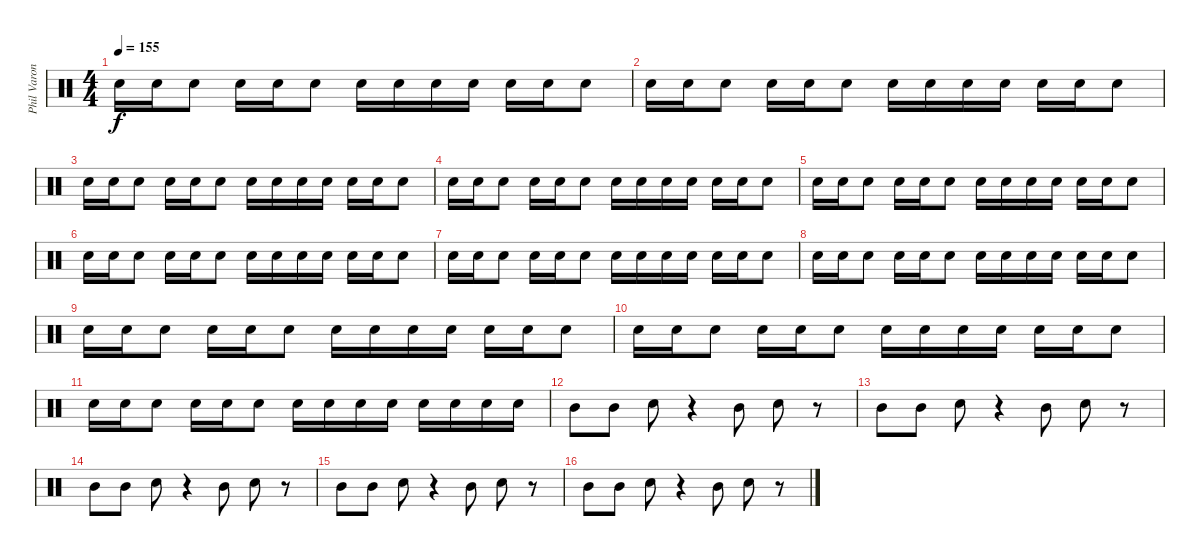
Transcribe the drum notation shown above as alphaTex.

\track ("Phil Varone" "Phil Varon") {instrument percussion}
\staff {score}
\articulation defaults
\ts (4 4)
\tempo 155
\clef neutral
\ks c "Snare (hit) 2".16{dy f} "Snare (hit) 2".16 "Snare (hit) 2".8 "Snare (hit) 2".16 "Snare (hit) 2".16 "Snare (hit) 2".8 "Snare (hit) 2".16 "Snare (hit) 2".16 "Snare (hit) 2".16 "Snare (hit) 2".16 "Snare (hit) 2".16 "Snare (hit) 2".16 "Snare (hit) 2".8
|
"Snare (hit) 2".16 "Snare (hit) 2".16 "Snare (hit) 2".8 "Snare (hit) 2".16 "Snare (hit) 2".16 "Snare (hit) 2".8 "Snare (hit) 2".16 "Snare (hit) 2".16 "Snare (hit) 2".16 "Snare (hit) 2".16 "Snare (hit) 2".16 "Snare (hit) 2".16 "Snare (hit) 2".8 |
"Snare (hit) 2".16 "Snare (hit) 2".16 "Snare (hit) 2".8 "Snare (hit) 2".16 "Snare (hit) 2".16 "Snare (hit) 2".8 "Snare (hit) 2".16 "Snare (hit) 2".16 "Snare (hit) 2".16 "Snare (hit) 2".16 "Snare (hit) 2".16 "Snare (hit) 2".16 "Snare (hit) 2".8 |
"Snare (hit) 2".16 "Snare (hit) 2".16 "Snare (hit) 2".8 "Snare (hit) 2".16 "Snare (hit) 2".16 "Snare (hit) 2".8 "Snare (hit) 2".16 "Snare (hit) 2".16 "Snare (hit) 2".16 "Snare (hit) 2".16 "Snare (hit) 2".16 "Snare (hit) 2".16 "Snare (hit) 2".8 |
"Snare (hit) 2".16 "Snare (hit) 2".16 "Snare (hit) 2".8 "Snare (hit) 2".16 "Snare (hit) 2".16 "Snare (hit) 2".8 "Snare (hit) 2".16 "Snare (hit) 2".16 "Snare (hit) 2".16 "Snare (hit) 2".16 "Snare (hit) 2".16 "Snare (hit) 2".16 "Snare (hit) 2".8 |
"Snare (hit) 2".16 "Snare (hit) 2".16 "Snare (hit) 2".8 "Snare (hit) 2".16 "Snare (hit) 2".16 "Snare (hit) 2".8 "Snare (hit) 2".16 "Snare (hit) 2".16 "Snare (hit) 2".16 "Snare (hit) 2".16 "Snare (hit) 2".16 "Snare (hit) 2".16 "Snare (hit) 2".8 |
"Snare (hit) 2".16 "Snare (hit) 2".16 "Snare (hit) 2".8 "Snare (hit) 2".16 "Snare (hit) 2".16 "Snare (hit) 2".8 "Snare (hit) 2".16 "Snare (hit) 2".16 "Snare (hit) 2".16 "Snare (hit) 2".16 "Snare (hit) 2".16 "Snare (hit) 2".16 "Snare (hit) 2".8 |
"Snare (hit) 2".16 "Snare (hit) 2".16 "Snare (hit) 2".8 "Snare (hit) 2".16 "Snare (hit) 2".16 "Snare (hit) 2".8 "Snare (hit) 2".16 "Snare (hit) 2".16 "Snare (hit) 2".16 "Snare (hit) 2".16 "Snare (hit) 2".16 "Snare (hit) 2".16 "Snare (hit) 2".8 |
"Snare (hit) 2".16 "Snare (hit) 2".16 "Snare (hit) 2".8 "Snare (hit) 2".16 "Snare (hit) 2".16 "Snare (hit) 2".8 "Snare (hit) 2".16 "Snare (hit) 2".16 "Snare (hit) 2".16 "Snare (hit) 2".16 "Snare (hit) 2".16 "Snare (hit) 2".16 "Snare (hit) 2".8 |
"Snare (hit) 2".16 "Snare (hit) 2".16 "Snare (hit) 2".8 "Snare (hit) 2".16 "Snare (hit) 2".16 "Snare (hit) 2".8 "Snare (hit) 2".16 "Snare (hit) 2".16 "Snare (hit) 2".16 "Snare (hit) 2".16 "Snare (hit) 2".16 "Snare (hit) 2".16 "Snare (hit) 2".8 |
"Snare (hit) 2".16 "Snare (hit) 2".16 "Snare (hit) 2".8 "Snare (hit) 2".16 "Snare (hit) 2".16 "Snare (hit) 2".8 "Snare (hit) 2".16 "Snare (hit) 2".16 "Snare (hit) 2".16 "Snare (hit) 2".16 "Snare (hit) 2".16 "Snare (hit) 2".16 "Snare (hit) 2".16 "Snare (hit) 2".16 |
"Mid Tom (hit)".8 "Mid Tom (hit)".8 "Snare (hit) 2".8 r.4 "Mid Tom (hit)".8 "Snare (hit) 2".8 r.8 |
"Mid Tom (hit)".8 "Mid Tom (hit)".8 "Snare (hit) 2".8 r.4 "Mid Tom (hit)".8 "Snare (hit) 2".8 r.8 |
"Mid Tom (hit)".8 "Mid Tom (hit)".8 "Snare (hit) 2".8 r.4 "Mid Tom (hit)".8 "Snare (hit) 2".8 r.8 |
"Mid Tom (hit)".8 "Mid Tom (hit)".8 "Snare (hit) 2".8 r.4 "Mid Tom (hit)".8 "Snare (hit) 2".8 r.8 |
"Mid Tom (hit)".8 "Mid Tom (hit)".8 "Snare (hit) 2".8 r.4 "Mid Tom (hit)".8 "Snare (hit) 2".8 r.8
